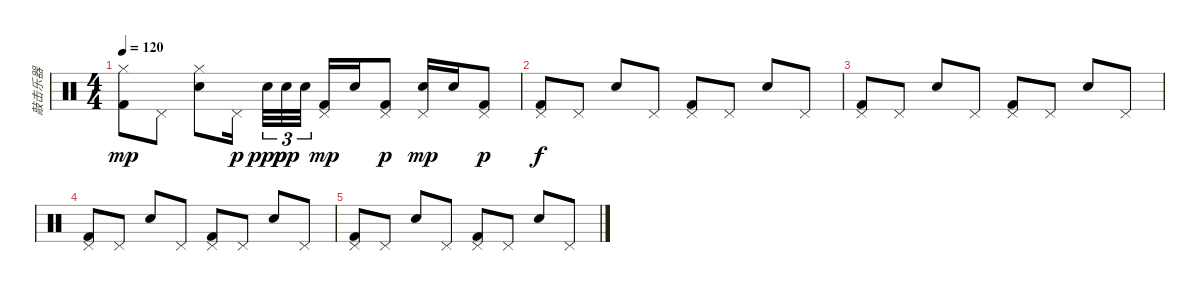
\track ("敲击乐器" "敲击乐器") {instrument percussion}
\staff {score}
\articulation defaults
\ts (4 4)
\tempo 120
\clef neutral
\ks c
("Hi-Hat (closed)" "Kick (hit) 2").8{dy mp} "Pedal Hi-Hat (hit)".8 ("Hi-Hat (closed)" "Electric Snare (hit)").8 "Pedal Hi-Hat (hit)".16{dy p beam splitsecondary} "Electric Snare (hit)".32{tu (3 2) dy ppp} "Electric Snare (hit)".32{tu (3 2) dy pp} "Electric Snare (hit)".32{tu (3 2)} ("Pedal Hi-Hat (hit)" "Kick (hit) 2").16{dy mp} "Electric Snare (hit)".16 ("Pedal Hi-Hat (hit)" "Kick (hit) 2").8{dy p} ("Pedal Hi-Hat (hit)" "Electric Snare (hit)").16{dy mp} "Electric Snare (hit)".16 ("Pedal Hi-Hat (hit)" "Kick (hit) 2").8{dy p} |
("Pedal Hi-Hat (hit)" "Kick (hit) 2").8{dy f} "Pedal Hi-Hat (hit)".8 "Snare (hit) 2".8 "Pedal Hi-Hat (hit)".8 ("Pedal Hi-Hat (hit)" "Kick (hit) 2").8 "Pedal Hi-Hat (hit)".8 "Snare (hit) 2".8 "Pedal Hi-Hat (hit)".8 |
("Pedal Hi-Hat (hit)" "Kick (hit) 2").8 "Pedal Hi-Hat (hit)".8 "Snare (hit) 2".8 "Pedal Hi-Hat (hit)".8 ("Pedal Hi-Hat (hit)" "Kick (hit) 2").8 "Pedal Hi-Hat (hit)".8 "Snare (hit) 2".8 "Pedal Hi-Hat (hit)".8 |
("Pedal Hi-Hat (hit)" "Kick (hit) 2").8 "Pedal Hi-Hat (hit)".8 "Snare (hit) 2".8 "Pedal Hi-Hat (hit)".8 ("Pedal Hi-Hat (hit)" "Kick (hit) 2").8 "Pedal Hi-Hat (hit)".8 "Snare (hit) 2".8 "Pedal Hi-Hat (hit)".8 |
("Pedal Hi-Hat (hit)" "Kick (hit) 2").8 "Pedal Hi-Hat (hit)".8 "Snare (hit) 2".8 "Pedal Hi-Hat (hit)".8 ("Pedal Hi-Hat (hit)" "Kick (hit) 2").8 "Pedal Hi-Hat (hit)".8 "Snare (hit) 2".8 "Pedal Hi-Hat (hit)".8
